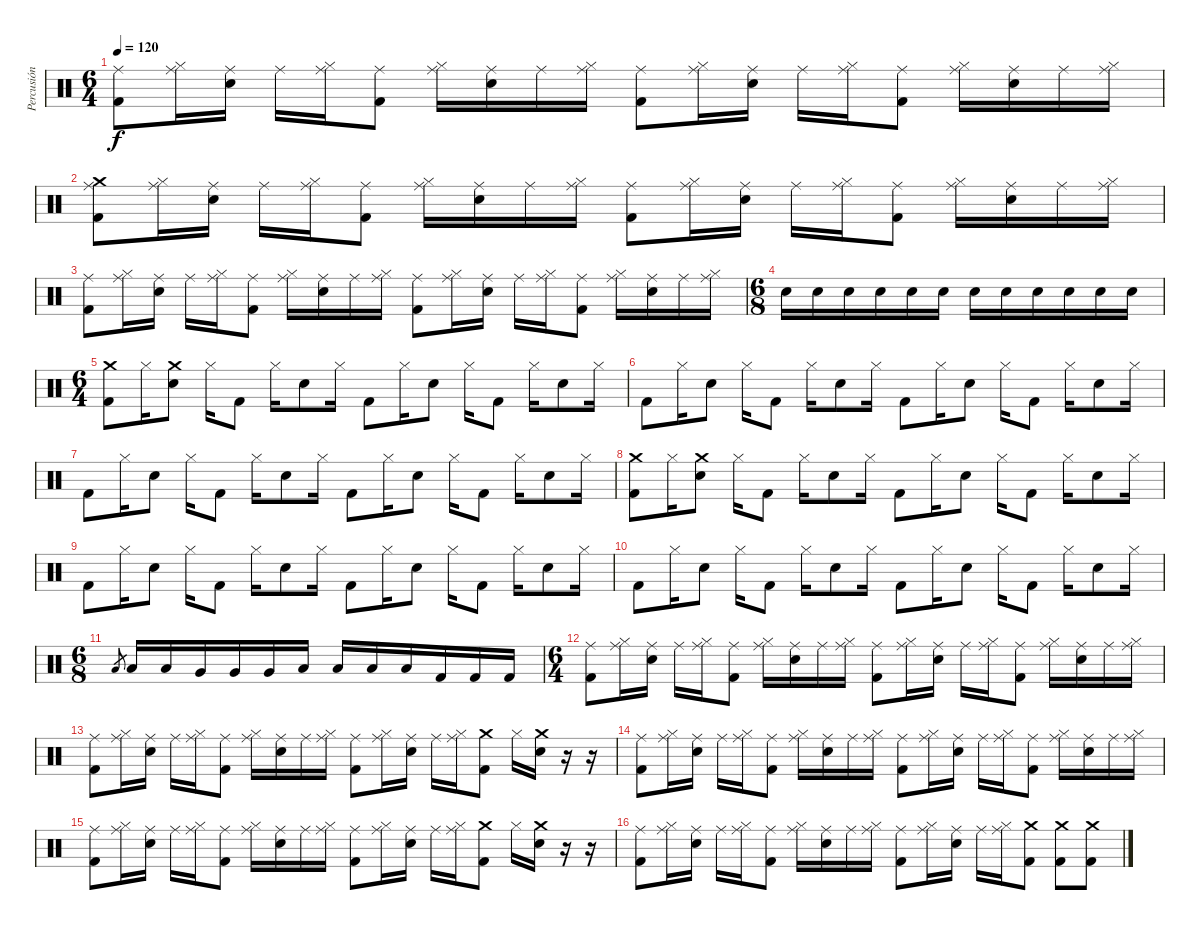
\track ("Percusión" "Percusión") {instrument percussion}
\staff {score}
\articulation defaults
\ts (6 4)
\tempo 120
\clef neutral
\ks c
("Ride (middle)" "Kick (hit) 2").8{dy f} ("Ride (middle)" "Hi-Hat (closed)").16 ("Ride (middle)" "Snare (hit) 2").16 "Ride (middle)".16 ("Ride (middle)" "Hi-Hat (closed)").16 ("Ride (middle)" "Kick (hit) 2").8 ("Ride (middle)" "Hi-Hat (closed)").16 ("Ride (middle)" "Snare (hit) 2").16 "Ride (middle)".16 ("Ride (middle)" "Hi-Hat (closed)").16 ("Ride (middle)" "Kick (hit) 2").8 ("Ride (middle)" "Hi-Hat (closed)").16 ("Ride (middle)" "Snare (hit) 2").16 "Ride (middle)".16 ("Ride (middle)" "Hi-Hat (closed)").16 ("Ride (middle)" "Kick (hit) 2").8 ("Ride (middle)" "Hi-Hat (closed)").16 ("Ride (middle)" "Snare (hit) 2").16 "Ride (middle)".16 ("Ride (middle)" "Hi-Hat (closed)").16 |
("Ride (middle)" "Kick (hit) 2" "Crash medium (hit)").8 ("Ride (middle)" "Hi-Hat (closed)").16 ("Ride (middle)" "Snare (hit) 2").16 "Ride (middle)".16 ("Ride (middle)" "Hi-Hat (closed)").16 ("Ride (middle)" "Kick (hit) 2").8 ("Ride (middle)" "Hi-Hat (closed)").16 ("Ride (middle)" "Snare (hit) 2").16 "Ride (middle)".16 ("Ride (middle)" "Hi-Hat (closed)").16 ("Ride (middle)" "Kick (hit) 2").8 ("Ride (middle)" "Hi-Hat (closed)").16 ("Ride (middle)" "Snare (hit) 2").16 "Ride (middle)".16 ("Ride (middle)" "Hi-Hat (closed)").16 ("Ride (middle)" "Kick (hit) 2").8 ("Ride (middle)" "Hi-Hat (closed)").16 ("Ride (middle)" "Snare (hit) 2").16 "Ride (middle)".16 ("Ride (middle)" "Hi-Hat (closed)").16 |
("Ride (middle)" "Kick (hit) 2").8 ("Ride (middle)" "Hi-Hat (closed)").16 ("Ride (middle)" "Snare (hit) 2").16 "Ride (middle)".16 ("Ride (middle)" "Hi-Hat (closed)").16 ("Ride (middle)" "Kick (hit) 2").8 ("Ride (middle)" "Hi-Hat (closed)").16 ("Ride (middle)" "Snare (hit) 2").16 "Ride (middle)".16 ("Ride (middle)" "Hi-Hat (closed)").16 ("Ride (middle)" "Kick (hit) 2").8 ("Ride (middle)" "Hi-Hat (closed)").16 ("Ride (middle)" "Snare (hit) 2").16 "Ride (middle)".16 ("Ride (middle)" "Hi-Hat (closed)").16 ("Ride (middle)" "Kick (hit) 2").8 ("Ride (middle)" "Hi-Hat (closed)").16 ("Ride (middle)" "Snare (hit) 2").16 "Ride (middle)".16 ("Ride (middle)" "Hi-Hat (closed)").16 |
\ts (6 8)
"Snare (hit) 2".16 "Snare (hit) 2".16 "Snare (hit) 2".16 "Snare (hit) 2".16 "Snare (hit) 2".16 "Snare (hit) 2".16 "Snare (hit) 2".16 "Snare (hit) 2".16 "Snare (hit) 2".16 "Snare (hit) 2".16 "Snare (hit) 2".16 "Snare (hit) 2".16 |
\ts (6 4)
("Crash medium (hit)" "Kick (hit) 2").8 "Hi-Hat (closed)".16 ("Crash medium (hit)" "Snare (hit) 2").8 "Hi-Hat (closed)".16 "Kick (hit) 2".8 "Hi-Hat (closed)".16 "Snare (hit) 2".8 "Hi-Hat (closed)".16 "Kick (hit) 2".8 "Hi-Hat (closed)".16 "Snare (hit) 2".8 "Hi-Hat (closed)".16 "Kick (hit) 2".8 "Hi-Hat (closed)".16 "Snare (hit) 2".8 "Hi-Hat (closed)".16 |
"Kick (hit) 2".8 "Hi-Hat (closed)".16 "Snare (hit) 2".8 "Hi-Hat (closed)".16 "Kick (hit) 2".8 "Hi-Hat (closed)".16 "Snare (hit) 2".8 "Hi-Hat (closed)".16 "Kick (hit) 2".8 "Hi-Hat (closed)".16 "Snare (hit) 2".8 "Hi-Hat (closed)".16 "Kick (hit) 2".8 "Hi-Hat (closed)".16 "Snare (hit) 2".8 "Hi-Hat (closed)".16 |
"Kick (hit) 2".8 "Hi-Hat (closed)".16 "Snare (hit) 2".8 "Hi-Hat (closed)".16 "Kick (hit) 2".8 "Hi-Hat (closed)".16 "Snare (hit) 2".8 "Hi-Hat (closed)".16 "Kick (hit) 2".8 "Hi-Hat (closed)".16 "Snare (hit) 2".8 "Hi-Hat (closed)".16 "Kick (hit) 2".8 "Hi-Hat (closed)".16 "Snare (hit) 2".8 "Hi-Hat (closed)".16 |
("Crash medium (hit)" "Kick (hit) 2").8 "Hi-Hat (closed)".16 ("Crash medium (hit)" "Snare (hit) 2").8 "Hi-Hat (closed)".16 "Kick (hit) 2".8 "Hi-Hat (closed)".16 "Snare (hit) 2".8 "Hi-Hat (closed)".16 "Kick (hit) 2".8 "Hi-Hat (closed)".16 "Snare (hit) 2".8 "Hi-Hat (closed)".16 "Kick (hit) 2".8 "Hi-Hat (closed)".16 "Snare (hit) 2".8 "Hi-Hat (closed)".16 |
"Kick (hit) 2".8 "Hi-Hat (closed)".16 "Snare (hit) 2".8 "Hi-Hat (closed)".16 "Kick (hit) 2".8 "Hi-Hat (closed)".16 "Snare (hit) 2".8 "Hi-Hat (closed)".16 "Kick (hit) 2".8 "Hi-Hat (closed)".16 "Snare (hit) 2".8 "Hi-Hat (closed)".16 "Kick (hit) 2".8 "Hi-Hat (closed)".16 "Snare (hit) 2".8 "Hi-Hat (closed)".16 |
"Kick (hit) 2".8 "Hi-Hat (closed)".16 "Snare (hit) 2".8 "Hi-Hat (closed)".16 "Kick (hit) 2".8 "Hi-Hat (closed)".16 "Snare (hit) 2".8 "Hi-Hat (closed)".16 "Kick (hit) 2".8 "Hi-Hat (closed)".16 "Snare (hit) 2".8 "Hi-Hat (closed)".16 "Kick (hit) 2".8 "Hi-Hat (closed)".16 "Snare (hit) 2".8 "Hi-Hat (closed)".16 |
\ts (6 8)
"Low Tom (hit)".8{gr} "Low Tom (hit)".16 "Low Tom (hit)".16 "Very Low Tom (hit)".16 "Very Low Tom (hit)".16 "Very Low Tom (hit)".16 "Low Floor Tom (hit)".16 "Low Floor Tom (hit)".16 "Low Floor Tom (hit)".16 "Low Floor Tom (hit)".16 "Kick (hit) 2".16 "Kick (hit) 2".16 "Kick (hit) 2".16 |
\ts (6 4)
("Ride (middle)" "Kick (hit) 2").8 ("Ride (middle)" "Hi-Hat (closed)").16 ("Ride (middle)" "Snare (hit) 2").16 "Ride (middle)".16 ("Ride (middle)" "Hi-Hat (closed)").16 ("Ride (middle)" "Kick (hit) 2").8 ("Ride (middle)" "Hi-Hat (closed)").16 ("Ride (middle)" "Snare (hit) 2").16 "Ride (middle)".16 ("Ride (middle)" "Hi-Hat (closed)").16 ("Ride (middle)" "Kick (hit) 2").8 ("Ride (middle)" "Hi-Hat (closed)").16 ("Ride (middle)" "Snare (hit) 2").16 "Ride (middle)".16 ("Ride (middle)" "Hi-Hat (closed)").16 ("Ride (middle)" "Kick (hit) 2").8 ("Ride (middle)" "Hi-Hat (closed)").16 ("Ride (middle)" "Snare (hit) 2").16 "Ride (middle)".16 ("Ride (middle)" "Hi-Hat (closed)").16 |
("Ride (middle)" "Kick (hit) 2").8 ("Ride (middle)" "Hi-Hat (closed)").16 ("Ride (middle)" "Snare (hit) 2").16 "Ride (middle)".16 ("Ride (middle)" "Hi-Hat (closed)").16 ("Ride (middle)" "Kick (hit) 2").8 ("Ride (middle)" "Hi-Hat (closed)").16 ("Ride (middle)" "Snare (hit) 2").16 "Ride (middle)".16 ("Ride (middle)" "Hi-Hat (closed)").16 ("Ride (middle)" "Kick (hit) 2").8 ("Ride (middle)" "Hi-Hat (closed)").16 ("Ride (middle)" "Snare (hit) 2").16 "Ride (middle)".16 ("Ride (middle)" "Hi-Hat (closed)").16 ("Crash medium (hit)" "Kick (hit) 2").8 "Hi-Hat (closed)".16 ("Crash medium (hit)" "Snare (hit) 2").16 r.16 r.16 |
("Ride (middle)" "Kick (hit) 2").8 ("Ride (middle)" "Hi-Hat (closed)").16 ("Ride (middle)" "Snare (hit) 2").16 "Ride (middle)".16 ("Ride (middle)" "Hi-Hat (closed)").16 ("Ride (middle)" "Kick (hit) 2").8 ("Ride (middle)" "Hi-Hat (closed)").16 ("Ride (middle)" "Snare (hit) 2").16 "Ride (middle)".16 ("Ride (middle)" "Hi-Hat (closed)").16 ("Ride (middle)" "Kick (hit) 2").8 ("Ride (middle)" "Hi-Hat (closed)").16 ("Ride (middle)" "Snare (hit) 2").16 "Ride (middle)".16 ("Ride (middle)" "Hi-Hat (closed)").16 ("Ride (middle)" "Kick (hit) 2").8 ("Ride (middle)" "Hi-Hat (closed)").16 ("Ride (middle)" "Snare (hit) 2").16 "Ride (middle)".16 ("Ride (middle)" "Hi-Hat (closed)").16 |
("Ride (middle)" "Kick (hit) 2").8 ("Ride (middle)" "Hi-Hat (closed)").16 ("Ride (middle)" "Snare (hit) 2").16 "Ride (middle)".16 ("Ride (middle)" "Hi-Hat (closed)").16 ("Ride (middle)" "Kick (hit) 2").8 ("Ride (middle)" "Hi-Hat (closed)").16 ("Ride (middle)" "Snare (hit) 2").16 "Ride (middle)".16 ("Ride (middle)" "Hi-Hat (closed)").16 ("Ride (middle)" "Kick (hit) 2").8 ("Ride (middle)" "Hi-Hat (closed)").16 ("Ride (middle)" "Snare (hit) 2").16 "Ride (middle)".16 ("Ride (middle)" "Hi-Hat (closed)").16 ("Crash medium (hit)" "Kick (hit) 2").8 "Hi-Hat (closed)".16 ("Crash medium (hit)" "Snare (hit) 2").16 r.16 r.16 |
("Ride (middle)" "Kick (hit) 2").8 ("Ride (middle)" "Hi-Hat (closed)").16 ("Ride (middle)" "Snare (hit) 2").16 "Ride (middle)".16 ("Ride (middle)" "Hi-Hat (closed)").16 ("Ride (middle)" "Kick (hit) 2").8 ("Ride (middle)" "Hi-Hat (closed)").16 ("Ride (middle)" "Snare (hit) 2").16 "Ride (middle)".16 ("Ride (middle)" "Hi-Hat (closed)").16 ("Ride (middle)" "Kick (hit) 2").8 ("Ride (middle)" "Hi-Hat (closed)").16 ("Ride (middle)" "Snare (hit) 2").16 "Ride (middle)".16 ("Ride (middle)" "Hi-Hat (closed)").16 ("Crash medium (hit)" "Kick (hit) 2").8 ("Crash medium (hit)" "Kick (hit) 2").8 ("Crash medium (hit)" "Kick (hit) 2").8
